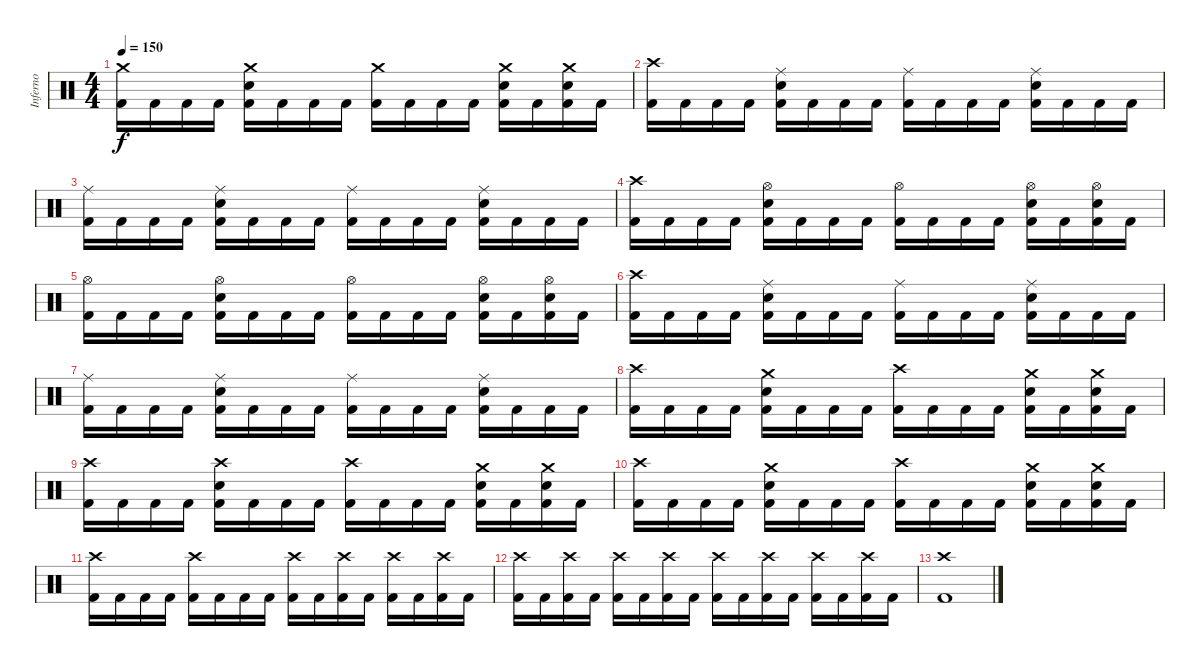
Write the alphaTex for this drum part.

\track ("Inferno" "Inferno") {instrument percussion}
\staff {score}
\articulation defaults
\ts (4 4)
\tempo 150
\clef neutral
\ks c
("Crash medium (hit)" "Kick (hit) 2").16{dy f} "Kick (hit) 2".16 "Kick (hit) 2".16 "Kick (hit) 2".16 ("Crash medium (hit)" "Electric Snare (hit)" "Kick (hit) 2").16 "Kick (hit) 2".16 "Kick (hit) 2".16 "Kick (hit) 2".16 ("Crash medium (hit)" "Kick (hit) 2").16 "Kick (hit) 2".16 "Kick (hit) 2".16 "Kick (hit) 2".16 ("Crash medium (hit)" "Electric Snare (hit)" "Kick (hit) 2").16 "Kick (hit) 2".16 ("Crash medium (hit)" "Electric Snare (hit)" "Kick (hit) 2").16 "Kick (hit) 2".16 |
("Crash high (hit)" "Kick (hit) 2").16 "Kick (hit) 2".16 "Kick (hit) 2".16 "Kick (hit) 2".16 ("Ride (middle)" "Electric Snare (hit)" "Kick (hit) 2").16 "Kick (hit) 2".16 "Kick (hit) 2".16 "Kick (hit) 2".16 ("Ride (middle)" "Kick (hit) 2").16 "Kick (hit) 2".16 "Kick (hit) 2".16 "Kick (hit) 2".16 ("Ride (middle)" "Electric Snare (hit)" "Kick (hit) 2").16 "Kick (hit) 2".16 "Kick (hit) 2".16 "Kick (hit) 2".16 |
("Ride (middle)" "Kick (hit) 2").16 "Kick (hit) 2".16 "Kick (hit) 2".16 "Kick (hit) 2".16 ("Ride (middle)" "Electric Snare (hit)" "Kick (hit) 2").16 "Kick (hit) 2".16 "Kick (hit) 2".16 "Kick (hit) 2".16 ("Ride (middle)" "Kick (hit) 2").16 "Kick (hit) 2".16 "Kick (hit) 2".16 "Kick (hit) 2".16 ("Ride (middle)" "Electric Snare (hit)" "Kick (hit) 2").16 "Kick (hit) 2".16 "Kick (hit) 2".16 "Kick (hit) 2".16 |
("Crash high (hit)" "Kick (hit) 2").16 "Kick (hit) 2".16 "Kick (hit) 2".16 "Kick (hit) 2".16 ("Hi-Hat (open)" "Electric Snare (hit)" "Kick (hit) 2").16 "Kick (hit) 2".16 "Kick (hit) 2".16 "Kick (hit) 2".16 ("Hi-Hat (open)" "Kick (hit) 2").16 "Kick (hit) 2".16 "Kick (hit) 2".16 "Kick (hit) 2".16 ("Hi-Hat (open)" "Electric Snare (hit)" "Kick (hit) 2").16 "Kick (hit) 2".16 ("Hi-Hat (open)" "Electric Snare (hit)" "Kick (hit) 2").16 "Kick (hit) 2".16 |
("Hi-Hat (open)" "Kick (hit) 2").16 "Kick (hit) 2".16 "Kick (hit) 2".16 "Kick (hit) 2".16 ("Hi-Hat (open)" "Electric Snare (hit)" "Kick (hit) 2").16 "Kick (hit) 2".16 "Kick (hit) 2".16 "Kick (hit) 2".16 ("Hi-Hat (open)" "Kick (hit) 2").16 "Kick (hit) 2".16 "Kick (hit) 2".16 "Kick (hit) 2".16 ("Hi-Hat (open)" "Electric Snare (hit)" "Kick (hit) 2").16 "Kick (hit) 2".16 ("Hi-Hat (open)" "Electric Snare (hit)" "Kick (hit) 2").16 "Kick (hit) 2".16 |
("Crash high (hit)" "Kick (hit) 2").16 "Kick (hit) 2".16 "Kick (hit) 2".16 "Kick (hit) 2".16 ("Ride (middle)" "Electric Snare (hit)" "Kick (hit) 2").16 "Kick (hit) 2".16 "Kick (hit) 2".16 "Kick (hit) 2".16 ("Ride (middle)" "Kick (hit) 2").16 "Kick (hit) 2".16 "Kick (hit) 2".16 "Kick (hit) 2".16 ("Ride (middle)" "Electric Snare (hit)" "Kick (hit) 2").16 "Kick (hit) 2".16 "Kick (hit) 2".16 "Kick (hit) 2".16 |
("Ride (middle)" "Kick (hit) 2").16 "Kick (hit) 2".16 "Kick (hit) 2".16 "Kick (hit) 2".16 ("Ride (middle)" "Electric Snare (hit)" "Kick (hit) 2").16 "Kick (hit) 2".16 "Kick (hit) 2".16 "Kick (hit) 2".16 ("Ride (middle)" "Kick (hit) 2").16 "Kick (hit) 2".16 "Kick (hit) 2".16 "Kick (hit) 2".16 ("Ride (middle)" "Electric Snare (hit)" "Kick (hit) 2").16 "Kick (hit) 2".16 "Kick (hit) 2".16 "Kick (hit) 2".16 |
("Crash high (hit)" "Kick (hit) 2").16 "Kick (hit) 2".16 "Kick (hit) 2".16 "Kick (hit) 2".16 ("Crash medium (hit)" "Electric Snare (hit)" "Kick (hit) 2").16 "Kick (hit) 2".16 "Kick (hit) 2".16 "Kick (hit) 2".16 ("Crash high (hit)" "Kick (hit) 2").16 "Kick (hit) 2".16 "Kick (hit) 2".16 "Kick (hit) 2".16 ("Crash medium (hit)" "Electric Snare (hit)" "Kick (hit) 2").16 "Kick (hit) 2".16 ("Crash medium (hit)" "Electric Snare (hit)" "Kick (hit) 2").16 "Kick (hit) 2".16 |
("Crash high (hit)" "Kick (hit) 2").16 "Kick (hit) 2".16 "Kick (hit) 2".16 "Kick (hit) 2".16 ("Crash high (hit)" "Electric Snare (hit)" "Kick (hit) 2").16 "Kick (hit) 2".16 "Kick (hit) 2".16 "Kick (hit) 2".16 ("Crash high (hit)" "Kick (hit) 2").16 "Kick (hit) 2".16 "Kick (hit) 2".16 "Kick (hit) 2".16 ("Crash medium (hit)" "Electric Snare (hit)" "Kick (hit) 2").16 "Kick (hit) 2".16 ("Crash medium (hit)" "Electric Snare (hit)" "Kick (hit) 2").16 "Kick (hit) 2".16 |
("Crash high (hit)" "Kick (hit) 2").16 "Kick (hit) 2".16 "Kick (hit) 2".16 "Kick (hit) 2".16 ("Crash medium (hit)" "Electric Snare (hit)" "Kick (hit) 2").16 "Kick (hit) 2".16 "Kick (hit) 2".16 "Kick (hit) 2".16 ("Crash high (hit)" "Kick (hit) 2").16 "Kick (hit) 2".16 "Kick (hit) 2".16 "Kick (hit) 2".16 ("Crash medium (hit)" "Electric Snare (hit)" "Kick (hit) 2").16 "Kick (hit) 2".16 ("Crash medium (hit)" "Electric Snare (hit)" "Kick (hit) 2").16 "Kick (hit) 2".16 |
("Crash high (hit)" "Kick (hit) 2").16 "Kick (hit) 2".16 "Kick (hit) 2".16 "Kick (hit) 2".16 ("Crash high (hit)" "Kick (hit) 2").16 "Kick (hit) 2".16 "Kick (hit) 2".16 "Kick (hit) 2".16 ("Crash high (hit)" "Kick (hit) 2").16 "Kick (hit) 2".16 ("Crash high (hit)" "Kick (hit) 2").16 "Kick (hit) 2".16 ("Crash high (hit)" "Kick (hit) 2").16 "Kick (hit) 2".16 ("Crash high (hit)" "Kick (hit) 2").16 "Kick (hit) 2".16 |
("Crash high (hit)" "Kick (hit) 2").16 "Kick (hit) 2".16 ("Crash high (hit)" "Kick (hit) 2").16 "Kick (hit) 2".16 ("Crash high (hit)" "Kick (hit) 2").16 "Kick (hit) 2".16 ("Crash high (hit)" "Kick (hit) 2").16 "Kick (hit) 2".16 ("Crash high (hit)" "Kick (hit) 2").16 "Kick (hit) 2".16 ("Crash high (hit)" "Kick (hit) 2").16 "Kick (hit) 2".16 ("Crash high (hit)" "Kick (hit) 2").16 "Kick (hit) 2".16 ("Crash high (hit)" "Kick (hit) 2").16 "Kick (hit) 2".16 |
("Crash high (hit)" "Kick (hit) 2").1
